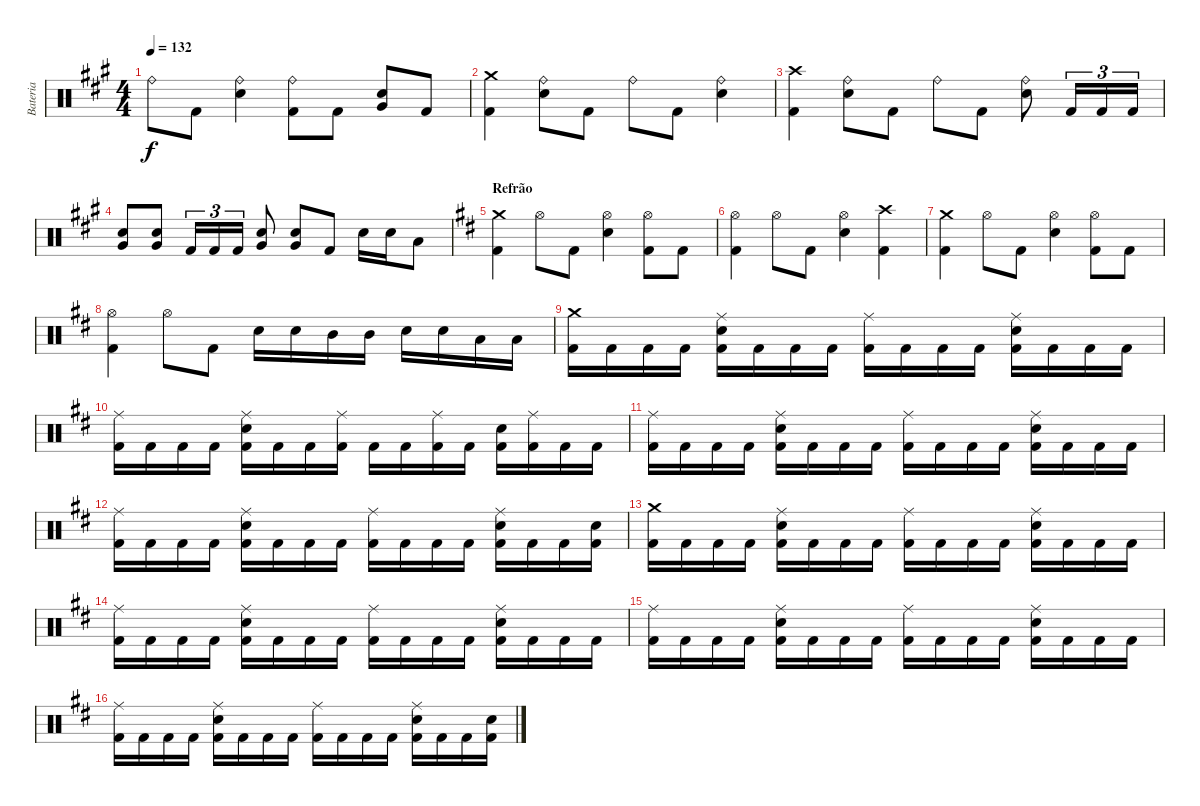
\track ("Bateria" "Bateria") {instrument percussion}
\staff {score}
\articulation defaults
\ts (4 4)
\tempo 132
\clef neutral
\ks f#minor "Ride (bell)".8{dy f} "Kick (hit) 2".8
("Ride (bell)" "Electric Snare (hit)").4 ("Ride (bell)" "Kick (hit) 2").8 "Kick (hit) 2".8 ("Very Low Tom (hit)" "Electric Snare (hit)").8 "Kick (hit) 2".8 |
("Crash medium (hit)" "Kick (hit) 2").4 ("Ride (bell)" "Electric Snare (hit)").8 "Kick (hit) 2".8 "Ride (bell)".8 "Kick (hit) 2".8 ("Ride (bell)" "Electric Snare (hit)").4 |
("Crash high (hit)" "Kick (hit) 2").4 ("Ride (bell)" "Electric Snare (hit)").8 "Kick (hit) 2".8 "Ride (bell)".8 "Kick (hit) 2".8 ("Ride (bell)" "Electric Snare (hit)").8 "Kick (hit) 2".16{tu (3 2)} "Kick (hit) 2".16{tu (3 2)} "Kick (hit) 2".16{tu (3 2)} |
("Very Low Tom (hit)" "Electric Snare (hit)").8 ("Very Low Tom (hit)" "Electric Snare (hit)").8 "Kick (hit) 2".16{tu (3 2)} "Kick (hit) 2".16{tu (3 2)} "Kick (hit) 2".16{tu (3 2)} ("Very Low Tom (hit)" "Electric Snare (hit)").8 ("Very Low Tom (hit)" "Electric Snare (hit)").8 "Kick (hit) 2".8 "Electric Snare (hit)".16 "Electric Snare (hit)".16 "Low Tom (hit)".8 |
\section ("" "Refrão")
\ks bminor
("Crash medium (hit)" "Kick (hit) 2").4 "Hi-Hat (open)".8 "Kick (hit) 2".8 ("Hi-Hat (open)" "Electric Snare (hit)").4 ("Hi-Hat (open)" "Kick (hit) 2").8 "Kick (hit) 2".8 |
("Hi-Hat (open)" "Kick (hit) 2").4 "Hi-Hat (open)".8 "Kick (hit) 2".8 ("Hi-Hat (open)" "Electric Snare (hit)").4 ("Crash high (hit)" "Kick (hit) 2").4 |
("Crash medium (hit)" "Kick (hit) 2").4 "Hi-Hat (open)".8 "Kick (hit) 2".8 ("Hi-Hat (open)" "Electric Snare (hit)").4 ("Hi-Hat (open)" "Kick (hit) 2").8 "Kick (hit) 2".8 |
("Hi-Hat (open)" "Kick (hit) 2").4 "Hi-Hat (open)".8 "Kick (hit) 2".8 "Electric Snare (hit)".16 "Electric Snare (hit)".16 "Mid Tom (hit)".16 "Mid Tom (hit)".16 "Electric Snare (hit)".16 "Electric Snare (hit)".16 "Low Tom (hit)".16 "Low Tom (hit)".16 |
("Crash medium (hit)" "Kick (hit) 2").16 "Kick (hit) 2".16 "Kick (hit) 2".16 "Kick (hit) 2".16 ("Ride (middle)" "Electric Snare (hit)" "Kick (hit) 2").16 "Kick (hit) 2".16 "Kick (hit) 2".16 "Kick (hit) 2".16 ("Ride (middle)" "Kick (hit) 2").16 "Kick (hit) 2".16 "Kick (hit) 2".16 "Kick (hit) 2".16 ("Ride (middle)" "Electric Snare (hit)" "Kick (hit) 2").16 "Kick (hit) 2".16 "Kick (hit) 2".16 "Kick (hit) 2".16 |
("Ride (middle)" "Kick (hit) 2").16 "Kick (hit) 2".16 "Kick (hit) 2".16 "Kick (hit) 2".16 ("Ride (middle)" "Electric Snare (hit)" "Kick (hit) 2").16 "Kick (hit) 2".16 "Kick (hit) 2".16 ("Ride (middle)" "Kick (hit) 2").16 "Kick (hit) 2".16 "Kick (hit) 2".16 ("Ride (middle)" "Kick (hit) 2").16 "Kick (hit) 2".16 ("Electric Snare (hit)" "Kick (hit) 2").16 ("Ride (middle)" "Kick (hit) 2").16 "Kick (hit) 2".16 "Kick (hit) 2".16 |
("Ride (middle)" "Kick (hit) 2").16 "Kick (hit) 2".16 "Kick (hit) 2".16 "Kick (hit) 2".16 ("Ride (middle)" "Electric Snare (hit)" "Kick (hit) 2").16 "Kick (hit) 2".16 "Kick (hit) 2".16 "Kick (hit) 2".16 ("Ride (middle)" "Kick (hit) 2").16 "Kick (hit) 2".16 "Kick (hit) 2".16 "Kick (hit) 2".16 ("Ride (middle)" "Electric Snare (hit)" "Kick (hit) 2").16 "Kick (hit) 2".16 "Kick (hit) 2".16 "Kick (hit) 2".16 |
("Ride (middle)" "Kick (hit) 2").16 "Kick (hit) 2".16 "Kick (hit) 2".16 "Kick (hit) 2".16 ("Ride (middle)" "Electric Snare (hit)" "Kick (hit) 2").16 "Kick (hit) 2".16 "Kick (hit) 2".16 "Kick (hit) 2".16 ("Ride (middle)" "Kick (hit) 2").16 "Kick (hit) 2".16 "Kick (hit) 2".16 "Kick (hit) 2".16 ("Ride (middle)" "Electric Snare (hit)" "Kick (hit) 2").16 "Kick (hit) 2".16 "Kick (hit) 2".16 ("Electric Snare (hit)" "Kick (hit) 2").16 |
("Crash medium (hit)" "Kick (hit) 2").16 "Kick (hit) 2".16 "Kick (hit) 2".16 "Kick (hit) 2".16 ("Ride (middle)" "Electric Snare (hit)" "Kick (hit) 2").16 "Kick (hit) 2".16 "Kick (hit) 2".16 "Kick (hit) 2".16 ("Ride (middle)" "Kick (hit) 2").16 "Kick (hit) 2".16 "Kick (hit) 2".16 "Kick (hit) 2".16 ("Ride (middle)" "Electric Snare (hit)" "Kick (hit) 2").16 "Kick (hit) 2".16 "Kick (hit) 2".16 "Kick (hit) 2".16 |
("Ride (middle)" "Kick (hit) 2").16 "Kick (hit) 2".16 "Kick (hit) 2".16 "Kick (hit) 2".16 ("Ride (middle)" "Electric Snare (hit)" "Kick (hit) 2").16 "Kick (hit) 2".16 "Kick (hit) 2".16 "Kick (hit) 2".16 ("Ride (middle)" "Kick (hit) 2").16 "Kick (hit) 2".16 "Kick (hit) 2".16 "Kick (hit) 2".16 ("Ride (middle)" "Electric Snare (hit)" "Kick (hit) 2").16 "Kick (hit) 2".16 "Kick (hit) 2".16 "Kick (hit) 2".16 |
("Ride (middle)" "Kick (hit) 2").16 "Kick (hit) 2".16 "Kick (hit) 2".16 "Kick (hit) 2".16 ("Ride (middle)" "Electric Snare (hit)" "Kick (hit) 2").16 "Kick (hit) 2".16 "Kick (hit) 2".16 "Kick (hit) 2".16 ("Ride (middle)" "Kick (hit) 2").16 "Kick (hit) 2".16 "Kick (hit) 2".16 "Kick (hit) 2".16 ("Ride (middle)" "Electric Snare (hit)" "Kick (hit) 2").16 "Kick (hit) 2".16 "Kick (hit) 2".16 "Kick (hit) 2".16 |
("Ride (middle)" "Kick (hit) 2").16 "Kick (hit) 2".16 "Kick (hit) 2".16 "Kick (hit) 2".16 ("Ride (middle)" "Electric Snare (hit)" "Kick (hit) 2").16 "Kick (hit) 2".16 "Kick (hit) 2".16 "Kick (hit) 2".16 ("Ride (middle)" "Kick (hit) 2").16 "Kick (hit) 2".16 "Kick (hit) 2".16 "Kick (hit) 2".16 ("Ride (middle)" "Electric Snare (hit)" "Kick (hit) 2").16 "Kick (hit) 2".16 "Kick (hit) 2".16 ("Electric Snare (hit)" "Kick (hit) 2").16
